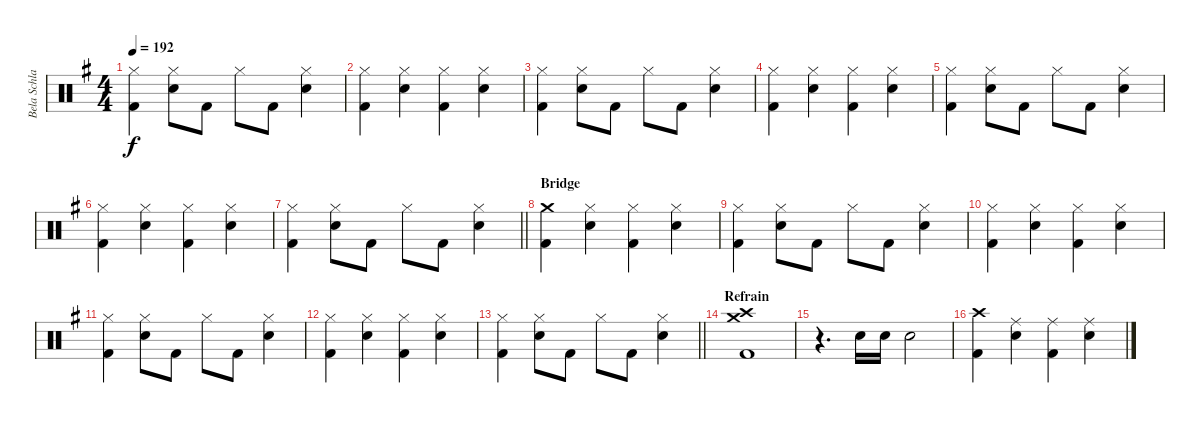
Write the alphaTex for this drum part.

\track ("Bela Schlagzeug" "Bela Schla") {instrument percussion}
\staff {score}
\articulation defaults
\ts (4 4)
\tempo 192
\clef neutral
\ks g
("Hi-Hat (closed)" "Kick (hit) 2").4{dy f} ("Hi-Hat (closed)" "Electric Snare (hit)").8 "Kick (hit) 2".8 "Hi-Hat (closed)".8 "Kick (hit) 2".8 ("Hi-Hat (closed)" "Electric Snare (hit)").4 |
("Hi-Hat (closed)" "Kick (hit) 2").4 ("Hi-Hat (closed)" "Electric Snare (hit)").4 ("Hi-Hat (closed)" "Kick (hit) 2").4 ("Hi-Hat (closed)" "Electric Snare (hit)").4 |
("Hi-Hat (closed)" "Kick (hit) 2").4 ("Hi-Hat (closed)" "Electric Snare (hit)").8 "Kick (hit) 2".8 "Hi-Hat (closed)".8 "Kick (hit) 2".8 ("Hi-Hat (closed)" "Electric Snare (hit)").4 |
("Hi-Hat (closed)" "Kick (hit) 2").4 ("Hi-Hat (closed)" "Electric Snare (hit)").4 ("Hi-Hat (closed)" "Kick (hit) 2").4 ("Hi-Hat (closed)" "Electric Snare (hit)").4 |
("Hi-Hat (closed)" "Kick (hit) 2").4 ("Hi-Hat (closed)" "Electric Snare (hit)").8 "Kick (hit) 2".8 "Hi-Hat (closed)".8 "Kick (hit) 2".8 ("Hi-Hat (closed)" "Electric Snare (hit)").4 |
("Hi-Hat (closed)" "Kick (hit) 2").4 ("Hi-Hat (closed)" "Electric Snare (hit)").4 ("Hi-Hat (closed)" "Kick (hit) 2").4 ("Hi-Hat (closed)" "Electric Snare (hit)").4 |
\barLineRight lightlight
("Hi-Hat (closed)" "Kick (hit) 2").4 ("Hi-Hat (closed)" "Electric Snare (hit)").8 "Kick (hit) 2".8 "Hi-Hat (closed)".8 "Kick (hit) 2".8 ("Hi-Hat (closed)" "Electric Snare (hit)").4 |
\section ("" "Bridge")
("Crash medium (hit)" "Kick (hit) 2").4 ("Hi-Hat (closed)" "Electric Snare (hit)").4 ("Hi-Hat (closed)" "Kick (hit) 2").4 ("Hi-Hat (closed)" "Electric Snare (hit)").4 |
("Hi-Hat (closed)" "Kick (hit) 2").4 ("Hi-Hat (closed)" "Electric Snare (hit)").8 "Kick (hit) 2".8 "Hi-Hat (closed)".8 "Kick (hit) 2".8 ("Hi-Hat (closed)" "Electric Snare (hit)").4 |
("Hi-Hat (closed)" "Kick (hit) 2").4 ("Hi-Hat (closed)" "Electric Snare (hit)").4 ("Hi-Hat (closed)" "Kick (hit) 2").4 ("Hi-Hat (closed)" "Electric Snare (hit)").4 |
("Hi-Hat (closed)" "Kick (hit) 2").4 ("Hi-Hat (closed)" "Electric Snare (hit)").8 "Kick (hit) 2".8 "Hi-Hat (closed)".8 "Kick (hit) 2".8 ("Hi-Hat (closed)" "Electric Snare (hit)").4 |
("Hi-Hat (closed)" "Kick (hit) 2").4 ("Hi-Hat (closed)" "Electric Snare (hit)").4 ("Hi-Hat (closed)" "Kick (hit) 2").4 ("Hi-Hat (closed)" "Electric Snare (hit)").4 |
\barLineRight lightlight
("Hi-Hat (closed)" "Kick (hit) 2").4 ("Hi-Hat (closed)" "Electric Snare (hit)").8 "Kick (hit) 2".8 "Hi-Hat (closed)".8 "Kick (hit) 2".8 ("Hi-Hat (closed)" "Electric Snare (hit)").4 |
\section ("" "Refrain")
("Crash medium (hit)" "Crash high (hit)" "Kick (hit) 2").1 |
r.4{d} "Electric Snare (hit)".16 "Electric Snare (hit)".16 "Electric Snare (hit)".2 |
("Crash high (hit)" "Kick (hit) 2").4 ("Ride (middle)" "Electric Snare (hit)").4 ("Ride (middle)" "Kick (hit) 2").4 ("Ride (middle)" "Electric Snare (hit)").4
